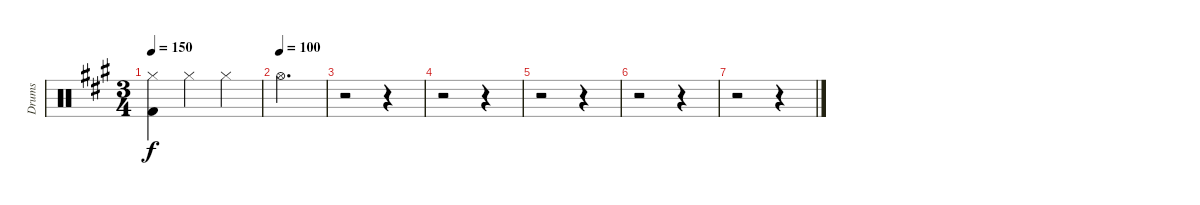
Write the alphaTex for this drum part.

\track ("Drums" "Drums") {instrument percussion}
\staff {score}
\articulation defaults
\ts (3 4)
\tempo 150
\clef neutral
\ks f#minor
("Kick (hit) 2" "Hi-Hat (closed)").4{dy f} "Hi-Hat (closed)".4 "Hi-Hat (closed)".4 |
\tempo (100)
"Hi-Hat (open)".2{d} |
r.2 r.4 |
r.2 r.4 |
r.2 r.4 |
r.2 r.4 |
r.2 r.4
